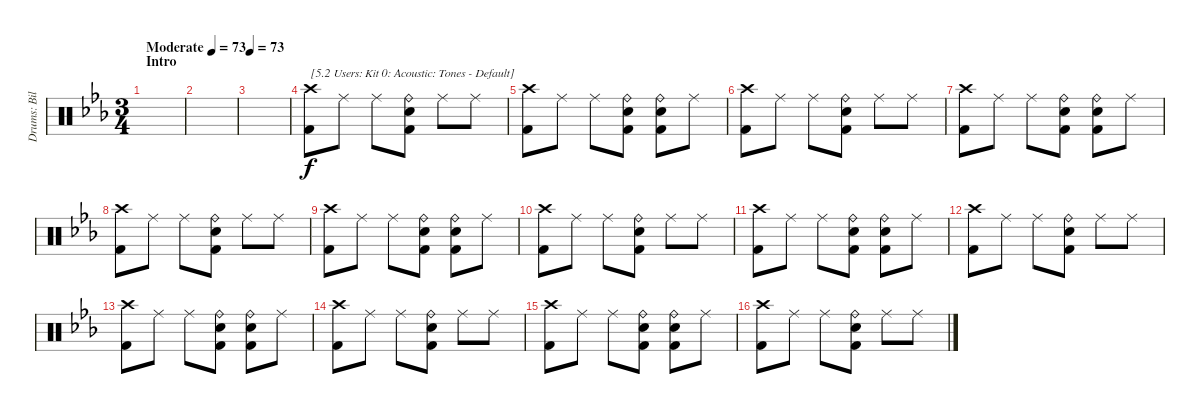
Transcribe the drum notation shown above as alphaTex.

\track ("Drums: Bill" "Drums: Bil") {instrument percussion}
\staff {score}
\articulation defaults
\ts (3 4)
\section ("" "Intro")
\tempo (73 "Moderate")
\tempo 44
\tempo (73 "Moderate")
\clef neutral
\ks eb
|
|
\tempo 73
|
("Crash high (hit)" "Kick (hit) 2").8{txt "[5.2 Users: Kit 0: Acoustic: Tones - Default]"} "Ride (middle)".8 "Ride (middle)".8 ("Ride (bell)" "Snare (hit) 2" "Kick (hit) 2").8 "Ride (middle)".8 "Ride (middle)".8 |
("Crash high (hit)" "Kick (hit) 2").8 "Ride (middle)".8 "Ride (middle)".8 ("Ride (bell)" "Snare (hit) 2" "Kick (hit) 2").8 ("Ride (bell)" "Snare (hit) 2" "Kick (hit) 2").8 "Ride (middle)".8 |
("Crash high (hit)" "Kick (hit) 2").8 "Ride (middle)".8 "Ride (middle)".8 ("Ride (bell)" "Snare (hit) 2" "Kick (hit) 2").8 "Ride (middle)".8 "Ride (middle)".8 |
("Crash high (hit)" "Kick (hit) 2").8 "Ride (middle)".8 "Ride (middle)".8 ("Ride (bell)" "Snare (hit) 2" "Kick (hit) 2").8 ("Ride (bell)" "Snare (hit) 2" "Kick (hit) 2").8 "Ride (middle)".8 |
("Crash high (hit)" "Kick (hit) 2").8 "Ride (middle)".8 "Ride (middle)".8 ("Ride (bell)" "Snare (hit) 2" "Kick (hit) 2").8 "Ride (middle)".8 "Ride (middle)".8 |
("Crash high (hit)" "Kick (hit) 2").8 "Ride (middle)".8 "Ride (middle)".8 ("Ride (bell)" "Snare (hit) 2" "Kick (hit) 2").8 ("Ride (bell)" "Snare (hit) 2" "Kick (hit) 2").8 "Ride (middle)".8 |
("Crash high (hit)" "Kick (hit) 2").8 "Ride (middle)".8 "Ride (middle)".8 ("Ride (bell)" "Snare (hit) 2" "Kick (hit) 2").8 "Ride (middle)".8 "Ride (middle)".8 |
("Crash high (hit)" "Kick (hit) 2").8 "Ride (middle)".8 "Ride (middle)".8 ("Ride (bell)" "Snare (hit) 2" "Kick (hit) 2").8 ("Ride (bell)" "Snare (hit) 2" "Kick (hit) 2").8 "Ride (middle)".8 |
("Crash high (hit)" "Kick (hit) 2").8 "Ride (middle)".8 "Ride (middle)".8 ("Ride (bell)" "Snare (hit) 2" "Kick (hit) 2").8 "Ride (middle)".8 "Ride (middle)".8 |
("Crash high (hit)" "Kick (hit) 2").8 "Ride (middle)".8 "Ride (middle)".8 ("Ride (bell)" "Snare (hit) 2" "Kick (hit) 2").8 ("Ride (bell)" "Snare (hit) 2" "Kick (hit) 2").8 "Ride (middle)".8 |
("Crash high (hit)" "Kick (hit) 2").8 "Ride (middle)".8 "Ride (middle)".8 ("Ride (bell)" "Snare (hit) 2" "Kick (hit) 2").8 "Ride (middle)".8 "Ride (middle)".8 |
("Crash high (hit)" "Kick (hit) 2").8 "Ride (middle)".8 "Ride (middle)".8 ("Ride (bell)" "Snare (hit) 2" "Kick (hit) 2").8 ("Ride (bell)" "Snare (hit) 2" "Kick (hit) 2").8 "Ride (middle)".8 |
("Crash high (hit)" "Kick (hit) 2").8 "Ride (middle)".8 "Ride (middle)".8 ("Ride (bell)" "Snare (hit) 2" "Kick (hit) 2").8 "Ride (middle)".8 "Ride (middle)".8
